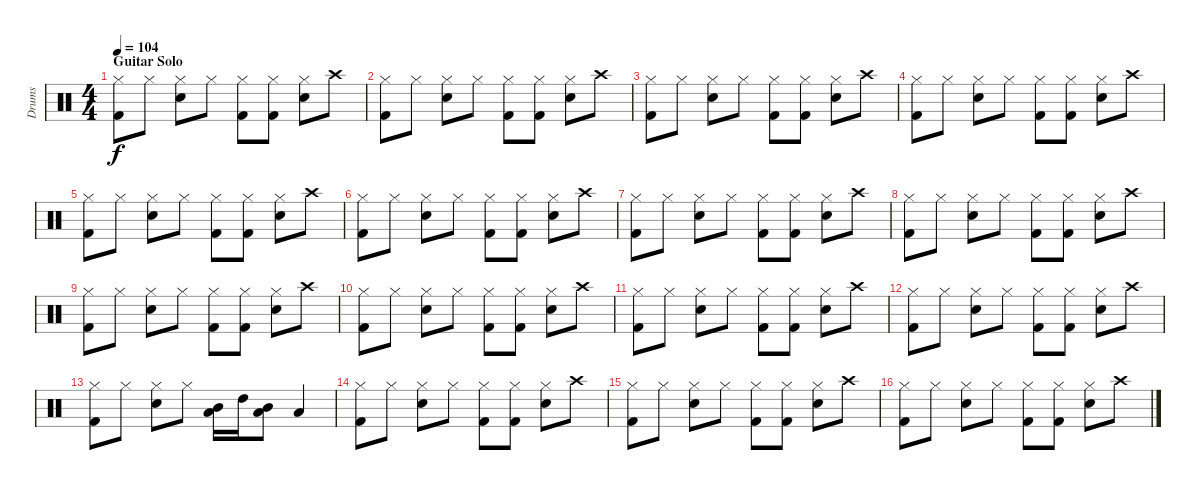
\track ("Drums" "Drums") {instrument percussion}
\staff {score}
\articulation defaults
\ts (4 4)
\section ("" "Guitar Solo")
\tempo 104
\clef neutral
\ks c
("Hi-Hat (closed)" "Kick (hit) 2").8{dy f} "Hi-Hat (closed)".8 ("Hi-Hat (closed)" "Snare (hit) 2").8 "Hi-Hat (closed)".8 ("Hi-Hat (closed)" "Kick (hit) 2").8 ("Hi-Hat (closed)" "Kick (hit) 2").8 ("Hi-Hat (closed)" "Snare (hit) 2").8 "Crash high (hit)".8 |
("Hi-Hat (closed)" "Kick (hit) 2").8 "Hi-Hat (closed)".8 ("Hi-Hat (closed)" "Snare (hit) 2").8 "Hi-Hat (closed)".8 ("Hi-Hat (closed)" "Kick (hit) 2").8 ("Hi-Hat (closed)" "Kick (hit) 2").8 ("Hi-Hat (closed)" "Snare (hit) 2").8 "Crash high (hit)".8 |
("Hi-Hat (closed)" "Kick (hit) 2").8 "Hi-Hat (closed)".8 ("Hi-Hat (closed)" "Snare (hit) 2").8 "Hi-Hat (closed)".8 ("Hi-Hat (closed)" "Kick (hit) 2").8 ("Hi-Hat (closed)" "Kick (hit) 2").8 ("Hi-Hat (closed)" "Snare (hit) 2").8 "Crash high (hit)".8 |
("Hi-Hat (closed)" "Kick (hit) 2").8 "Hi-Hat (closed)".8 ("Hi-Hat (closed)" "Snare (hit) 2").8 "Hi-Hat (closed)".8 ("Hi-Hat (closed)" "Kick (hit) 2").8 ("Hi-Hat (closed)" "Kick (hit) 2").8 ("Hi-Hat (closed)" "Snare (hit) 2").8 "Crash high (hit)".8 |
("Hi-Hat (closed)" "Kick (hit) 2").8 "Hi-Hat (closed)".8 ("Hi-Hat (closed)" "Snare (hit) 2").8 "Hi-Hat (closed)".8 ("Hi-Hat (closed)" "Kick (hit) 2").8 ("Hi-Hat (closed)" "Kick (hit) 2").8 ("Hi-Hat (closed)" "Snare (hit) 2").8 "Crash high (hit)".8 |
("Hi-Hat (closed)" "Kick (hit) 2").8 "Hi-Hat (closed)".8 ("Hi-Hat (closed)" "Snare (hit) 2").8 "Hi-Hat (closed)".8 ("Hi-Hat (closed)" "Kick (hit) 2").8 ("Hi-Hat (closed)" "Kick (hit) 2").8 ("Hi-Hat (closed)" "Snare (hit) 2").8 "Crash high (hit)".8 |
("Hi-Hat (closed)" "Kick (hit) 2").8 "Hi-Hat (closed)".8 ("Hi-Hat (closed)" "Snare (hit) 2").8 "Hi-Hat (closed)".8 ("Hi-Hat (closed)" "Kick (hit) 2").8 ("Hi-Hat (closed)" "Kick (hit) 2").8 ("Hi-Hat (closed)" "Snare (hit) 2").8 "Crash high (hit)".8 |
("Hi-Hat (closed)" "Kick (hit) 2").8 "Hi-Hat (closed)".8 ("Hi-Hat (closed)" "Snare (hit) 2").8 "Hi-Hat (closed)".8 ("Hi-Hat (closed)" "Kick (hit) 2").8 ("Hi-Hat (closed)" "Kick (hit) 2").8 ("Hi-Hat (closed)" "Snare (hit) 2").8 "Crash high (hit)".8 |
("Hi-Hat (closed)" "Kick (hit) 2").8 "Hi-Hat (closed)".8 ("Hi-Hat (closed)" "Snare (hit) 2").8 "Hi-Hat (closed)".8 ("Hi-Hat (closed)" "Kick (hit) 2").8 ("Hi-Hat (closed)" "Kick (hit) 2").8 ("Hi-Hat (closed)" "Snare (hit) 2").8 "Crash high (hit)".8 |
("Hi-Hat (closed)" "Kick (hit) 2").8 "Hi-Hat (closed)".8 ("Hi-Hat (closed)" "Snare (hit) 2").8 "Hi-Hat (closed)".8 ("Hi-Hat (closed)" "Kick (hit) 2").8 ("Hi-Hat (closed)" "Kick (hit) 2").8 ("Hi-Hat (closed)" "Snare (hit) 2").8 "Crash high (hit)".8 |
("Hi-Hat (closed)" "Kick (hit) 2").8 "Hi-Hat (closed)".8 ("Hi-Hat (closed)" "Snare (hit) 2").8 "Hi-Hat (closed)".8 ("Hi-Hat (closed)" "Kick (hit) 2").8 ("Hi-Hat (closed)" "Kick (hit) 2").8 ("Hi-Hat (closed)" "Snare (hit) 2").8 "Crash high (hit)".8 |
("Hi-Hat (closed)" "Kick (hit) 2").8 "Hi-Hat (closed)".8 ("Hi-Hat (closed)" "Snare (hit) 2").8 "Hi-Hat (closed)".8 ("Hi-Hat (closed)" "Kick (hit) 2").8 ("Hi-Hat (closed)" "Kick (hit) 2").8 ("Hi-Hat (closed)" "Snare (hit) 2").8 "Crash high (hit)".8 |
("Hi-Hat (closed)" "Kick (hit) 2").8 "Hi-Hat (closed)".8 ("Hi-Hat (closed)" "Snare (hit) 2").8 "Hi-Hat (closed)".8 ("Mid Tom (hit)" "Low Tom (hit)").16 "High Tom (hit)".16 ("Mid Tom (hit)" "Low Tom (hit)").8 "Low Tom (hit)".4 |
("Hi-Hat (closed)" "Kick (hit) 2").8 "Hi-Hat (closed)".8 ("Hi-Hat (closed)" "Snare (hit) 2").8 "Hi-Hat (closed)".8 ("Hi-Hat (closed)" "Kick (hit) 2").8 ("Hi-Hat (closed)" "Kick (hit) 2").8 ("Hi-Hat (closed)" "Snare (hit) 2").8 "Crash high (hit)".8 |
("Hi-Hat (closed)" "Kick (hit) 2").8 "Hi-Hat (closed)".8 ("Hi-Hat (closed)" "Snare (hit) 2").8 "Hi-Hat (closed)".8 ("Hi-Hat (closed)" "Kick (hit) 2").8 ("Hi-Hat (closed)" "Kick (hit) 2").8 ("Hi-Hat (closed)" "Snare (hit) 2").8 "Crash high (hit)".8 |
("Hi-Hat (closed)" "Kick (hit) 2").8 "Hi-Hat (closed)".8 ("Hi-Hat (closed)" "Snare (hit) 2").8 "Hi-Hat (closed)".8 ("Hi-Hat (closed)" "Kick (hit) 2").8 ("Hi-Hat (closed)" "Kick (hit) 2").8 ("Hi-Hat (closed)" "Snare (hit) 2").8 "Crash high (hit)".8
